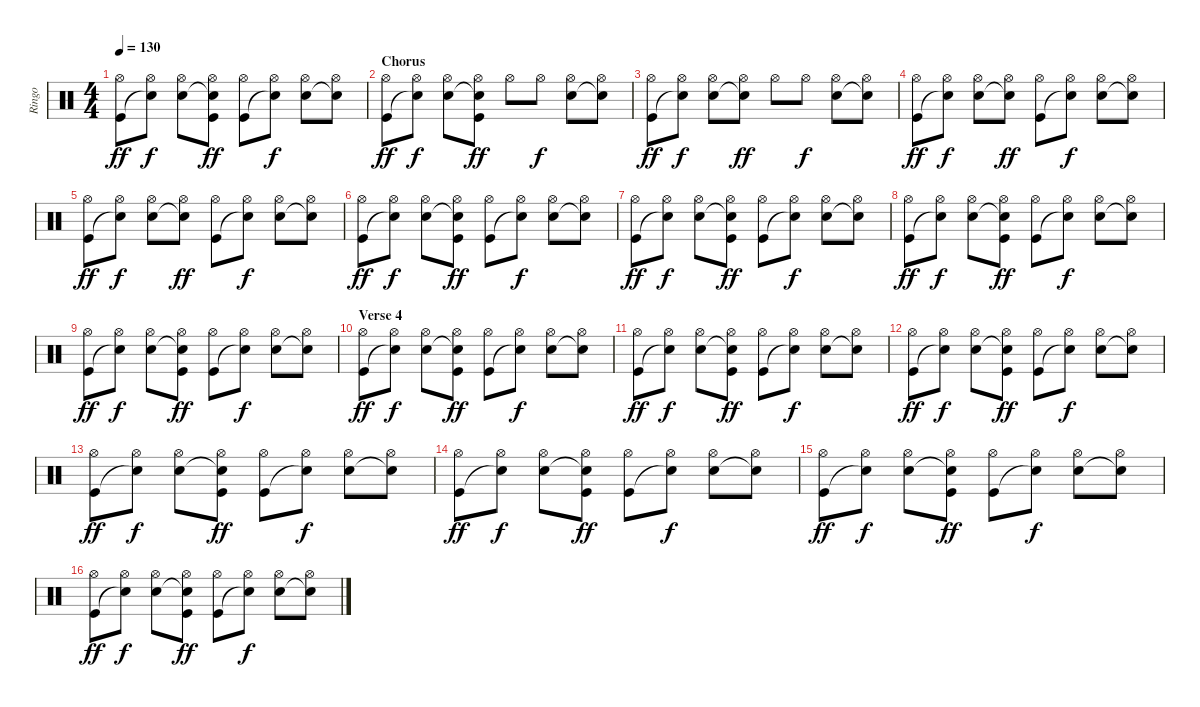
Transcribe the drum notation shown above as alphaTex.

\track ("Ringo" "Ringo") {instrument percussion}
\staff {score}
\articulation defaults
\ts (4 4)
\tempo 130
\clef neutral
\ks c
("Hi-Hat (open)" "Kick (hit)").8{dy ff} ("Hi-Hat (open)" "Snare (hit)"{t}).8{dy f} ("Hi-Hat (open)" "Snare (hit) 2").8 ("Hi-Hat (open)" "Snare (hit)"{t} "Kick (hit)").8{dy ff} ("Hi-Hat (open)" "Kick (hit)").8 ("Hi-Hat (open)" "Snare (hit)"{t}).8{dy f} ("Hi-Hat (open)" "Snare (hit) 2").8 ("Hi-Hat (open)" "Snare (hit)"{t}).8 |
\section ("" "Chorus")
("Hi-Hat (open)" "Kick (hit)").8{dy ff} ("Hi-Hat (open)" "Snare (hit)"{t}).8{dy f} ("Hi-Hat (open)" "Snare (hit) 2").8 ("Hi-Hat (open)" "Snare (hit)"{t} "Kick (hit)").8{dy ff} "Hi-Hat (open)".8 "Hi-Hat (open)".8{dy f} ("Hi-Hat (open)" "Snare (hit) 2").8 ("Hi-Hat (open)" "Snare (hit)"{t}).8 |
("Hi-Hat (open)" "Kick (hit)").8{dy ff} ("Hi-Hat (open)" "Snare (hit)"{t}).8{dy f} ("Hi-Hat (open)" "Snare (hit) 2").8 ("Hi-Hat (open)" "Snare (hit)"{t}).8{dy ff} "Hi-Hat (open)".8 "Hi-Hat (open)".8{dy f} ("Hi-Hat (open)" "Snare (hit) 2").8 ("Hi-Hat (open)" "Snare (hit)"{t}).8 |
("Hi-Hat (open)" "Kick (hit)").8{dy ff} ("Hi-Hat (open)" "Snare (hit)"{t}).8{dy f} ("Hi-Hat (open)" "Snare (hit) 2").8 ("Hi-Hat (open)" "Snare (hit)"{t}).8{dy ff} ("Hi-Hat (open)" "Kick (hit)").8 ("Hi-Hat (open)" "Snare (hit)"{t}).8{dy f} ("Hi-Hat (open)" "Snare (hit) 2").8 ("Hi-Hat (open)" "Snare (hit)"{t}).8 |
("Hi-Hat (open)" "Kick (hit)").8{dy ff} ("Hi-Hat (open)" "Snare (hit)"{t}).8{dy f} ("Hi-Hat (open)" "Snare (hit) 2").8 ("Hi-Hat (open)" "Snare (hit)"{t}).8{dy ff} ("Hi-Hat (open)" "Kick (hit)").8 ("Hi-Hat (open)" "Snare (hit)"{t}).8{dy f} ("Hi-Hat (open)" "Snare (hit) 2").8 ("Hi-Hat (open)" "Snare (hit)"{t}).8 |
("Hi-Hat (open)" "Kick (hit)").8{dy ff} ("Hi-Hat (open)" "Snare (hit)"{t}).8{dy f} ("Hi-Hat (open)" "Snare (hit) 2").8 ("Hi-Hat (open)" "Snare (hit)"{t} "Kick (hit)").8{dy ff} ("Hi-Hat (open)" "Kick (hit)").8 ("Hi-Hat (open)" "Snare (hit)"{t}).8{dy f} ("Hi-Hat (open)" "Snare (hit) 2").8 ("Hi-Hat (open)" "Snare (hit)"{t}).8 |
("Hi-Hat (open)" "Kick (hit)").8{dy ff} ("Hi-Hat (open)" "Snare (hit)"{t}).8{dy f} ("Hi-Hat (open)" "Snare (hit) 2").8 ("Hi-Hat (open)" "Snare (hit)"{t} "Kick (hit)").8{dy ff} ("Hi-Hat (open)" "Kick (hit)").8 ("Hi-Hat (open)" "Snare (hit)"{t}).8{dy f} ("Hi-Hat (open)" "Snare (hit) 2").8 ("Hi-Hat (open)" "Snare (hit)"{t}).8 |
("Hi-Hat (open)" "Kick (hit)").8{dy ff} ("Hi-Hat (open)" "Snare (hit)"{t}).8{dy f} ("Hi-Hat (open)" "Snare (hit) 2").8 ("Hi-Hat (open)" "Snare (hit)"{t} "Kick (hit)").8{dy ff} ("Hi-Hat (open)" "Kick (hit)").8 ("Hi-Hat (open)" "Snare (hit)"{t}).8{dy f} ("Hi-Hat (open)" "Snare (hit) 2").8 ("Hi-Hat (open)" "Snare (hit)"{t}).8 |
("Hi-Hat (open)" "Kick (hit)").8{dy ff} ("Hi-Hat (open)" "Snare (hit)"{t}).8{dy f} ("Hi-Hat (open)" "Snare (hit) 2").8 ("Hi-Hat (open)" "Snare (hit)"{t} "Kick (hit)").8{dy ff} ("Hi-Hat (open)" "Kick (hit)").8 ("Hi-Hat (open)" "Snare (hit)"{t}).8{dy f} ("Hi-Hat (open)" "Snare (hit) 2").8 ("Hi-Hat (open)" "Snare (hit)"{t}).8 |
\section ("" "Verse 4")
("Hi-Hat (open)" "Kick (hit)").8{dy ff} ("Hi-Hat (open)" "Snare (hit)"{t}).8{dy f} ("Hi-Hat (open)" "Snare (hit) 2").8 ("Hi-Hat (open)" "Snare (hit)"{t} "Kick (hit)").8{dy ff} ("Hi-Hat (open)" "Kick (hit)").8 ("Hi-Hat (open)" "Snare (hit)"{t}).8{dy f} ("Hi-Hat (open)" "Snare (hit) 2").8 ("Hi-Hat (open)" "Snare (hit)"{t}).8 |
("Hi-Hat (open)" "Kick (hit)").8{dy ff} ("Hi-Hat (open)" "Snare (hit)"{t}).8{dy f} ("Hi-Hat (open)" "Snare (hit) 2").8 ("Hi-Hat (open)" "Snare (hit)"{t} "Kick (hit)").8{dy ff} ("Hi-Hat (open)" "Kick (hit)").8 ("Hi-Hat (open)" "Snare (hit)"{t}).8{dy f} ("Hi-Hat (open)" "Snare (hit) 2").8 ("Hi-Hat (open)" "Snare (hit)"{t}).8 |
("Hi-Hat (open)" "Kick (hit)").8{dy ff} ("Hi-Hat (open)" "Snare (hit)"{t}).8{dy f} ("Hi-Hat (open)" "Snare (hit) 2").8 ("Hi-Hat (open)" "Snare (hit)"{t} "Kick (hit)").8{dy ff} ("Hi-Hat (open)" "Kick (hit)").8 ("Hi-Hat (open)" "Snare (hit)"{t}).8{dy f} ("Hi-Hat (open)" "Snare (hit) 2").8 ("Hi-Hat (open)" "Snare (hit)"{t}).8 |
("Hi-Hat (open)" "Kick (hit)").8{dy ff} ("Hi-Hat (open)" "Snare (hit)"{t}).8{dy f} ("Hi-Hat (open)" "Snare (hit) 2").8 ("Hi-Hat (open)" "Snare (hit)"{t} "Kick (hit)").8{dy ff} ("Hi-Hat (open)" "Kick (hit)").8 ("Hi-Hat (open)" "Snare (hit)"{t}).8{dy f} ("Hi-Hat (open)" "Snare (hit) 2").8 ("Hi-Hat (open)" "Snare (hit)"{t}).8 |
("Hi-Hat (open)" "Kick (hit)").8{dy ff} ("Hi-Hat (open)" "Snare (hit)"{t}).8{dy f} ("Hi-Hat (open)" "Snare (hit) 2").8 ("Hi-Hat (open)" "Snare (hit)"{t} "Kick (hit)").8{dy ff} ("Hi-Hat (open)" "Kick (hit)").8 ("Hi-Hat (open)" "Snare (hit)"{t}).8{dy f} ("Hi-Hat (open)" "Snare (hit) 2").8 ("Hi-Hat (open)" "Snare (hit)"{t}).8 |
("Hi-Hat (open)" "Kick (hit)").8{dy ff} ("Hi-Hat (open)" "Snare (hit)"{t}).8{dy f} ("Hi-Hat (open)" "Snare (hit) 2").8 ("Hi-Hat (open)" "Snare (hit)"{t} "Kick (hit)").8{dy ff} ("Hi-Hat (open)" "Kick (hit)").8 ("Hi-Hat (open)" "Snare (hit)"{t}).8{dy f} ("Hi-Hat (open)" "Snare (hit) 2").8 ("Hi-Hat (open)" "Snare (hit)"{t}).8 |
("Hi-Hat (open)" "Kick (hit)").8{dy ff} ("Hi-Hat (open)" "Snare (hit)"{t}).8{dy f} ("Hi-Hat (open)" "Snare (hit) 2").8 ("Hi-Hat (open)" "Snare (hit)"{t} "Kick (hit)").8{dy ff} ("Hi-Hat (open)" "Kick (hit)").8 ("Hi-Hat (open)" "Snare (hit)"{t}).8{dy f} ("Hi-Hat (open)" "Snare (hit) 2").8 ("Hi-Hat (open)" "Snare (hit)"{t}).8
